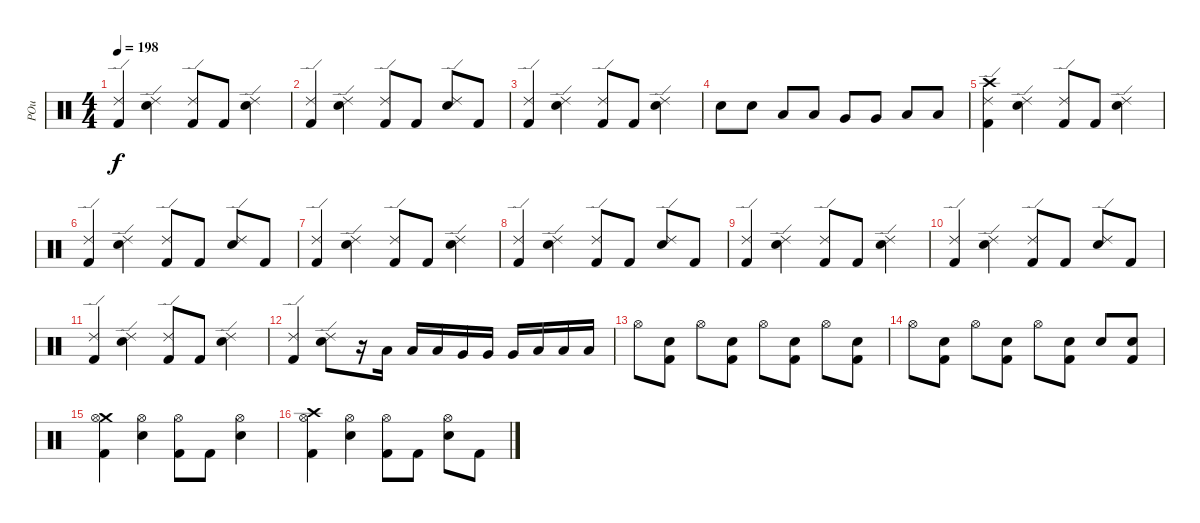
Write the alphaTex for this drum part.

\track ("POu" "POu") {instrument percussion}
\staff {score}
\articulation defaults
\ts (4 4)
\tempo 198
\clef neutral
\ks c
("Kick (hit) 2" "Ride (edge) 2").4{dy f} ("Electric Snare (hit)" "Ride (edge) 2").4 ("Kick (hit) 2" "Ride (edge) 2").8 "Kick (hit) 2".8 ("Electric Snare (hit)" "Ride (edge) 2").4 |
("Kick (hit) 2" "Ride (edge) 2").4 ("Electric Snare (hit)" "Ride (edge) 2").4 ("Kick (hit) 2" "Ride (edge) 2").8 "Kick (hit) 2".8 ("Electric Snare (hit)" "Ride (edge) 2").8 "Kick (hit) 2".8 |
("Kick (hit) 2" "Ride (edge) 2").4 ("Electric Snare (hit)" "Ride (edge) 2").4 ("Kick (hit) 2" "Ride (edge) 2").8 "Kick (hit) 2".8 ("Electric Snare (hit)" "Ride (edge) 2").4 |
"Electric Snare (hit)".8 "Electric Snare (hit)".8 "Low Tom (hit)".8 "Low Tom (hit)".8 "Very Low Tom (hit)".8 "Very Low Tom (hit)".8 "Low Floor Tom (hit)".8 "Low Floor Tom (hit)".8 |
("Crash high (hit)" "Kick (hit) 2" "Ride (edge) 2").4 ("Electric Snare (hit)" "Ride (edge) 2").4 ("Kick (hit) 2" "Ride (edge) 2").8 "Kick (hit) 2".8 ("Electric Snare (hit)" "Ride (edge) 2").4 |
("Kick (hit) 2" "Ride (edge) 2").4 ("Electric Snare (hit)" "Ride (edge) 2").4 ("Kick (hit) 2" "Ride (edge) 2").8 "Kick (hit) 2".8 ("Electric Snare (hit)" "Ride (edge) 2").8 "Kick (hit) 2".8 |
("Kick (hit) 2" "Ride (edge) 2").4 ("Electric Snare (hit)" "Ride (edge) 2").4 ("Kick (hit) 2" "Ride (edge) 2").8 "Kick (hit) 2".8 ("Electric Snare (hit)" "Ride (edge) 2").4 |
("Kick (hit) 2" "Ride (edge) 2").4 ("Electric Snare (hit)" "Ride (edge) 2").4 ("Kick (hit) 2" "Ride (edge) 2").8 "Kick (hit) 2".8 ("Electric Snare (hit)" "Ride (edge) 2").8 "Kick (hit) 2".8 |
("Kick (hit) 2" "Ride (edge) 2").4 ("Electric Snare (hit)" "Ride (edge) 2").4 ("Kick (hit) 2" "Ride (edge) 2").8 "Kick (hit) 2".8 ("Electric Snare (hit)" "Ride (edge) 2").4 |
("Kick (hit) 2" "Ride (edge) 2").4 ("Electric Snare (hit)" "Ride (edge) 2").4 ("Kick (hit) 2" "Ride (edge) 2").8 "Kick (hit) 2".8 ("Electric Snare (hit)" "Ride (edge) 2").8 "Kick (hit) 2".8 |
("Kick (hit) 2" "Ride (edge) 2").4 ("Electric Snare (hit)" "Ride (edge) 2").4 ("Kick (hit) 2" "Ride (edge) 2").8 "Kick (hit) 2".8 ("Electric Snare (hit)" "Ride (edge) 2").4 |
("Kick (hit) 2" "Ride (edge) 2").4 ("Electric Snare (hit)" "Ride (edge) 2").8 r.16 "Low Tom (hit)".16 "Low Tom (hit)".16 "Low Tom (hit)".16 "Very Low Tom (hit)".16 "Very Low Tom (hit)".16 "Very Low Tom (hit)".16 "Low Floor Tom (hit)".16 "Low Floor Tom (hit)".16 "Low Floor Tom (hit)".16 |
"Hi-Hat (open)".8 ("Electric Snare (hit)" "Kick (hit) 2").8 "Hi-Hat (open)".8 ("Electric Snare (hit)" "Kick (hit) 2").8 "Hi-Hat (open)".8 ("Electric Snare (hit)" "Kick (hit) 2").8 "Hi-Hat (open)".8 ("Electric Snare (hit)" "Kick (hit) 2").8 |
"Hi-Hat (open)".8 ("Electric Snare (hit)" "Kick (hit) 2").8 "Hi-Hat (open)".8 ("Electric Snare (hit)" "Kick (hit) 2").8 "Hi-Hat (open)".8 ("Electric Snare (hit)" "Kick (hit) 2").8 "Electric Snare (hit)".8 ("Electric Snare (hit)" "Kick (hit) 2").8 |
("Crash medium (hit)" "Kick (hit) 2" "Hi-Hat (open)").4 ("Electric Snare (hit)" "Hi-Hat (open)").4 ("Kick (hit) 2" "Hi-Hat (open)").8 "Kick (hit) 2".8 ("Electric Snare (hit)" "Hi-Hat (open)").4 |
("Crash high (hit)" "Kick (hit) 2" "Hi-Hat (open)").4 ("Electric Snare (hit)" "Hi-Hat (open)").4 ("Kick (hit) 2" "Hi-Hat (open)").8 "Kick (hit) 2".8 ("Electric Snare (hit)" "Hi-Hat (open)").8 "Kick (hit) 2".8
